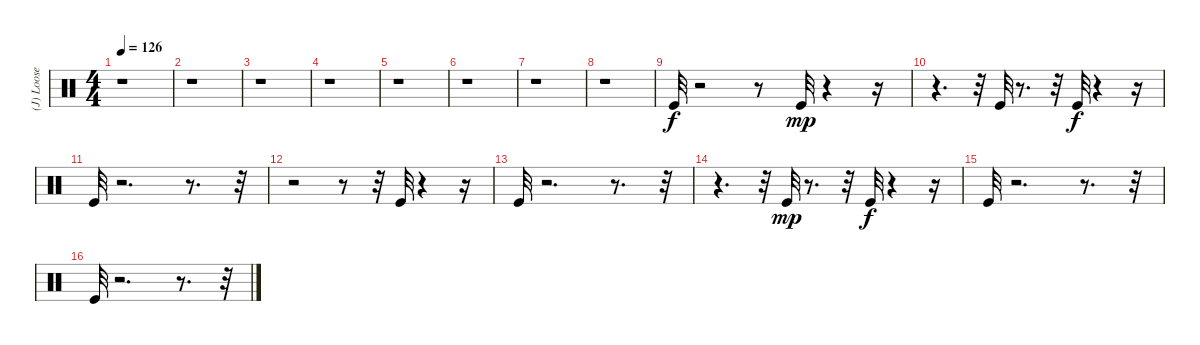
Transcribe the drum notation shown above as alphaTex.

\track ("(J) Loose Kick" "(J) Loose ") {instrument percussion}
\staff {score}
\articulation defaults
\ts (4 4)
\tempo 126
\clef neutral
\ks c
r.1{dy f} |
r.1 |
r.1 |
r.1 |
r.1 |
r.1 |
r.1 |
r.1 |
"Kick (hit)".32 r.2 r.8 "Kick (hit)".32{dy mp} r.4 r.16 |
r.4{d} r.32 "Kick (hit)".32 r.8{d} r.32 "Kick (hit)".32{dy f} r.4 r.16 |
"Kick (hit)".32 r.2{d} r.8{d} r.32 |
r.2 r.8 r.32 "Kick (hit)".32 r.4 r.16 |
"Kick (hit)".32 r.2{d} r.8{d} r.32 |
r.4{d} r.32 "Kick (hit)".32{dy mp} r.8{d} r.32 "Kick (hit)".32{dy f} r.4 r.16 |
"Kick (hit)".32 r.2{d} r.8{d} r.32 |
"Kick (hit)".32 r.2{d} r.8{d} r.32
